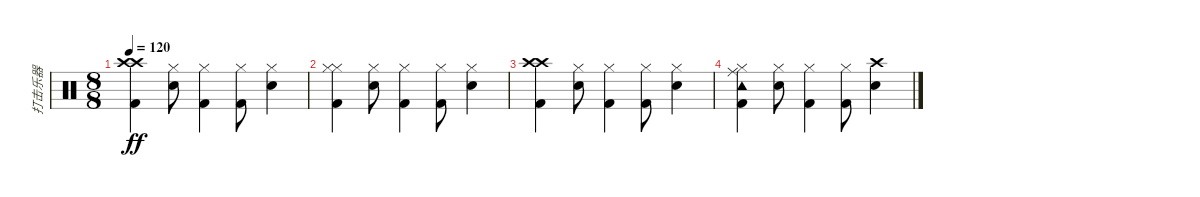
\track ("打击乐器" "打击乐器") {instrument percussion}
\staff {score}
\articulation defaults
\ts (8 8)
\tempo 120
\clef neutral
\ks c
("Crash high (hit)" "Kick (hit) 2" "Crash high (hit)").4{dy ff} ("Snare (hit) 2" "Hi-Hat (closed)").8 ("Kick (hit) 2" "Hi-Hat (closed)").4 ("Kick (hit) 2" "Hi-Hat (closed)").8 ("Snare (hit) 2" "Hi-Hat (closed)").4 |
("Hi-Hat (closed)" "Kick (hit) 2" "Hi-Hat (closed)").4 ("Snare (hit) 2" "Hi-Hat (closed)").8 ("Kick (hit) 2" "Hi-Hat (closed)").4 ("Kick (hit) 2" "Hi-Hat (closed)").8 ("Snare (hit) 2" "Hi-Hat (closed)").4 |
("Crash high (hit)" "Kick (hit) 2" "Crash high (hit)").4 ("Snare (hit) 2" "Hi-Hat (closed)").8 ("Kick (hit) 2" "Hi-Hat (closed)").4 ("Kick (hit) 2" "Hi-Hat (closed)").8 ("Snare (hit) 2" "Hi-Hat (closed)").4 |
("Hi-Hat (closed)" "Kick (hit) 2" "Tambourine (hit)" "Ride (middle)").4 ("Snare (hit) 2" "Hi-Hat (closed)").8 ("Kick (hit) 2" "Hi-Hat (closed)").4 ("Kick (hit) 2" "Hi-Hat (closed)").8 ("Snare (hit) 2" "Crash high (hit)").4
